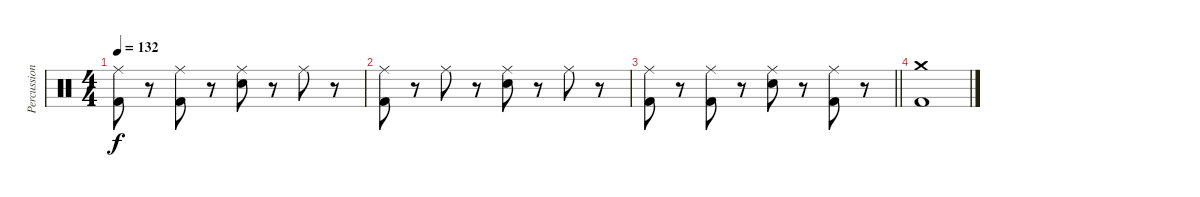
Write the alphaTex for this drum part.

\track ("Percussion" "Percussion") {instrument percussion}
\staff {score}
\articulation defaults
\ts (4 4)
\tempo 132
\clef neutral
\ks c
("Ride (middle)" "Kick (hit) 2").8{dy f} r.8 ("Ride (middle)" "Kick (hit) 2").8 r.8 ("Ride (middle)" "Electric Snare (hit)").8 r.8 "Ride (middle)".8 r.8 |
("Ride (middle)" "Kick (hit) 2").8 r.8 "Ride (middle)".8 r.8 ("Ride (middle)" "Electric Snare (hit)").8 r.8 "Ride (middle)".8 r.8 |
\barLineRight lightlight
("Ride (middle)" "Kick (hit) 2").8 r.8 ("Ride (middle)" "Kick (hit) 2").8 r.8 ("Ride (middle)" "Electric Snare (hit)").8 r.8 ("Ride (middle)" "Kick (hit) 2").8 r.8 |
("Crash medium (hit)" "Kick (hit) 2").1
